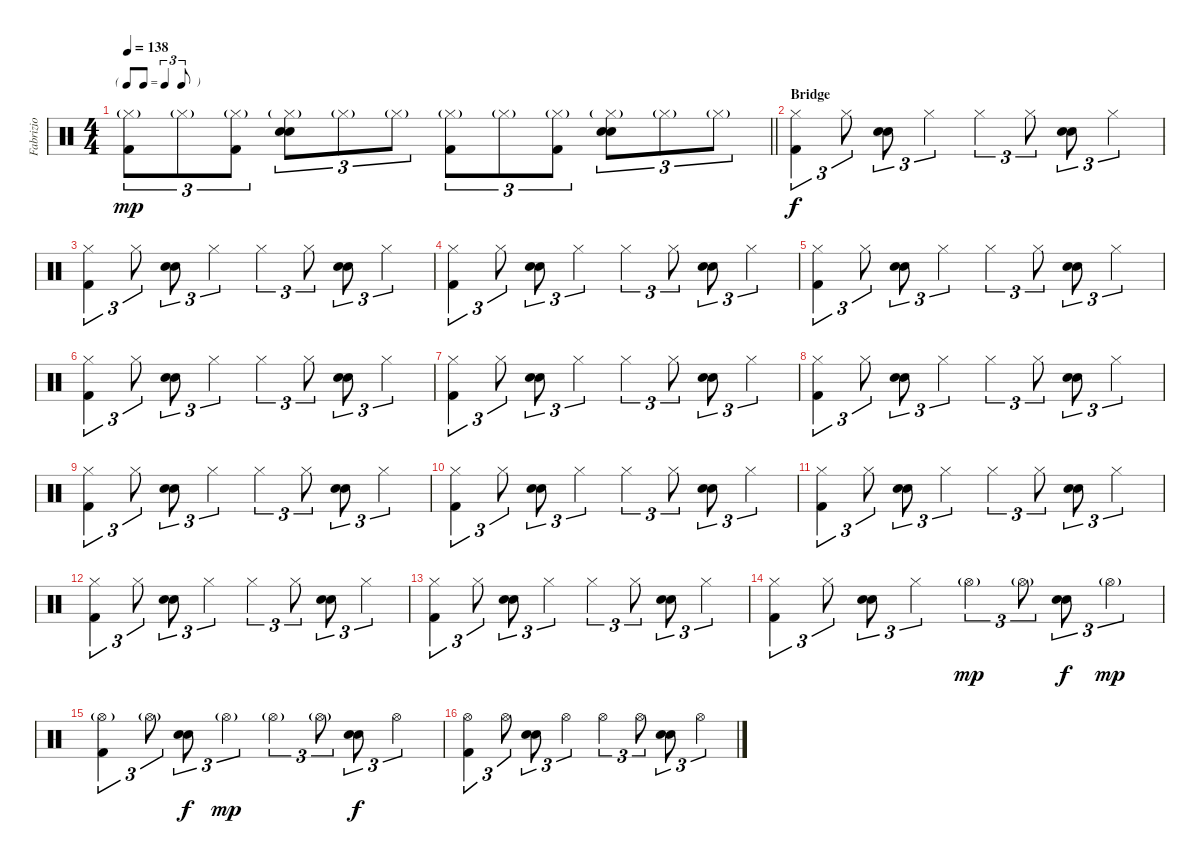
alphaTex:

\track ("Fabrizio" "Fabrizio") {instrument percussion}
\staff {score}
\articulation defaults
\ts (4 4)
\tf triplet8th
\tempo 138
\clef neutral
\barLineRight lightlight
\ks c
("Hi-Hat (closed)"{g} "Kick (hit) 2").8{tu (3 2) dy mp} "Hi-Hat (closed)"{g}.8{tu (3 2)} ("Hi-Hat (closed)"{g} "Kick (hit) 2").8{tu (3 2)} ("Hi-Hat (closed)"{g} "Electric Snare (hit)" "Snare (hit) 2").8{tu (3 2)} "Hi-Hat (closed)"{g}.8{tu (3 2)} "Hi-Hat (closed)"{g}.8{tu (3 2)} ("Hi-Hat (closed)"{g} "Kick (hit) 2").8{tu (3 2)} "Hi-Hat (closed)"{g}.8{tu (3 2)} ("Hi-Hat (closed)"{g} "Kick (hit) 2").8{tu (3 2)} ("Hi-Hat (closed)"{g} "Electric Snare (hit)" "Snare (hit) 2").8{tu (3 2)} "Hi-Hat (closed)"{g}.8{tu (3 2)} "Hi-Hat (closed)"{g}.8{tu (3 2)} |
\section ("" "Bridge")
("Hi-Hat (closed)" "Kick (hit) 2").4{tu (3 2) dy f} "Hi-Hat (closed)".8{tu (3 2)} ("Electric Snare (hit)" "Snare (hit) 2").8{tu (3 2)} "Hi-Hat (closed)".4{tu (3 2)} "Hi-Hat (closed)".4{tu (3 2)} "Hi-Hat (closed)".8{tu (3 2)} ("Electric Snare (hit)" "Snare (hit) 2").8{tu (3 2)} "Hi-Hat (closed)".4{tu (3 2)} |
("Hi-Hat (closed)" "Kick (hit) 2").4{tu (3 2)} "Hi-Hat (closed)".8{tu (3 2)} ("Electric Snare (hit)" "Snare (hit) 2").8{tu (3 2)} "Hi-Hat (closed)".4{tu (3 2)} "Hi-Hat (closed)".4{tu (3 2)} "Hi-Hat (closed)".8{tu (3 2)} ("Electric Snare (hit)" "Snare (hit) 2").8{tu (3 2)} "Hi-Hat (closed)".4{tu (3 2)} |
("Hi-Hat (closed)" "Kick (hit) 2").4{tu (3 2)} "Hi-Hat (closed)".8{tu (3 2)} ("Electric Snare (hit)" "Snare (hit) 2").8{tu (3 2)} "Hi-Hat (closed)".4{tu (3 2)} "Hi-Hat (closed)".4{tu (3 2)} "Hi-Hat (closed)".8{tu (3 2)} ("Electric Snare (hit)" "Snare (hit) 2").8{tu (3 2)} "Hi-Hat (closed)".4{tu (3 2)} |
("Hi-Hat (closed)" "Kick (hit) 2").4{tu (3 2)} "Hi-Hat (closed)".8{tu (3 2)} ("Electric Snare (hit)" "Snare (hit) 2").8{tu (3 2)} "Hi-Hat (closed)".4{tu (3 2)} "Hi-Hat (closed)".4{tu (3 2)} "Hi-Hat (closed)".8{tu (3 2)} ("Electric Snare (hit)" "Snare (hit) 2").8{tu (3 2)} "Hi-Hat (closed)".4{tu (3 2)} |
("Hi-Hat (closed)" "Kick (hit) 2").4{tu (3 2)} "Hi-Hat (closed)".8{tu (3 2)} ("Electric Snare (hit)" "Snare (hit) 2").8{tu (3 2)} "Hi-Hat (closed)".4{tu (3 2)} "Hi-Hat (closed)".4{tu (3 2)} "Hi-Hat (closed)".8{tu (3 2)} ("Electric Snare (hit)" "Snare (hit) 2").8{tu (3 2)} "Hi-Hat (closed)".4{tu (3 2)} |
("Hi-Hat (closed)" "Kick (hit) 2").4{tu (3 2)} "Hi-Hat (closed)".8{tu (3 2)} ("Electric Snare (hit)" "Snare (hit) 2").8{tu (3 2)} "Hi-Hat (closed)".4{tu (3 2)} "Hi-Hat (closed)".4{tu (3 2)} "Hi-Hat (closed)".8{tu (3 2)} ("Electric Snare (hit)" "Snare (hit) 2").8{tu (3 2)} "Hi-Hat (closed)".4{tu (3 2)} |
("Hi-Hat (closed)" "Kick (hit) 2").4{tu (3 2)} "Hi-Hat (closed)".8{tu (3 2)} ("Electric Snare (hit)" "Snare (hit) 2").8{tu (3 2)} "Hi-Hat (closed)".4{tu (3 2)} "Hi-Hat (closed)".4{tu (3 2)} "Hi-Hat (closed)".8{tu (3 2)} ("Electric Snare (hit)" "Snare (hit) 2").8{tu (3 2)} "Hi-Hat (closed)".4{tu (3 2)} |
("Hi-Hat (closed)" "Kick (hit) 2").4{tu (3 2)} "Hi-Hat (closed)".8{tu (3 2)} ("Electric Snare (hit)" "Snare (hit) 2").8{tu (3 2)} "Hi-Hat (closed)".4{tu (3 2)} "Hi-Hat (closed)".4{tu (3 2)} "Hi-Hat (closed)".8{tu (3 2)} ("Electric Snare (hit)" "Snare (hit) 2").8{tu (3 2)} "Hi-Hat (closed)".4{tu (3 2)} |
("Hi-Hat (closed)" "Kick (hit) 2").4{tu (3 2)} "Hi-Hat (closed)".8{tu (3 2)} ("Electric Snare (hit)" "Snare (hit) 2").8{tu (3 2)} "Hi-Hat (closed)".4{tu (3 2)} "Hi-Hat (closed)".4{tu (3 2)} "Hi-Hat (closed)".8{tu (3 2)} ("Electric Snare (hit)" "Snare (hit) 2").8{tu (3 2)} "Hi-Hat (closed)".4{tu (3 2)} |
("Hi-Hat (closed)" "Kick (hit) 2").4{tu (3 2)} "Hi-Hat (closed)".8{tu (3 2)} ("Electric Snare (hit)" "Snare (hit) 2").8{tu (3 2)} "Hi-Hat (closed)".4{tu (3 2)} "Hi-Hat (closed)".4{tu (3 2)} "Hi-Hat (closed)".8{tu (3 2)} ("Electric Snare (hit)" "Snare (hit) 2").8{tu (3 2)} "Hi-Hat (closed)".4{tu (3 2)} |
("Hi-Hat (closed)" "Kick (hit) 2").4{tu (3 2)} "Hi-Hat (closed)".8{tu (3 2)} ("Electric Snare (hit)" "Snare (hit) 2").8{tu (3 2)} "Hi-Hat (closed)".4{tu (3 2)} "Hi-Hat (closed)".4{tu (3 2)} "Hi-Hat (closed)".8{tu (3 2)} ("Electric Snare (hit)" "Snare (hit) 2").8{tu (3 2)} "Hi-Hat (closed)".4{tu (3 2)} |
("Hi-Hat (closed)" "Kick (hit) 2").4{tu (3 2)} "Hi-Hat (closed)".8{tu (3 2)} ("Electric Snare (hit)" "Snare (hit) 2").8{tu (3 2)} "Hi-Hat (closed)".4{tu (3 2)} "Hi-Hat (closed)".4{tu (3 2)} "Hi-Hat (closed)".8{tu (3 2)} ("Electric Snare (hit)" "Snare (hit) 2").8{tu (3 2)} "Hi-Hat (closed)".4{tu (3 2)} |
("Hi-Hat (closed)" "Kick (hit) 2").4{tu (3 2)} "Hi-Hat (closed)".8{tu (3 2)} ("Electric Snare (hit)" "Snare (hit) 2").8{tu (3 2)} "Hi-Hat (closed)".4{tu (3 2)} "Hi-Hat (open)"{g}.4{tu (3 2) dy mp} "Hi-Hat (open)"{g}.8{tu (3 2)} ("Electric Snare (hit)" "Snare (hit) 2").8{tu (3 2) dy f} "Hi-Hat (open)"{g}.4{tu (3 2) dy mp} |
("Hi-Hat (open)"{g} "Kick (hit) 2").4{tu (3 2)} "Hi-Hat (open)"{g}.8{tu (3 2)} ("Electric Snare (hit)" "Snare (hit) 2").8{tu (3 2) dy f} "Hi-Hat (open)"{g}.4{tu (3 2) dy mp} "Hi-Hat (open)"{g}.4{tu (3 2)} "Hi-Hat (open)"{g}.8{tu (3 2)} ("Electric Snare (hit)" "Snare (hit) 2").8{tu (3 2) dy f} "Hi-Hat (open)".4{tu (3 2)} |
("Hi-Hat (open)" "Kick (hit) 2").4{tu (3 2)} "Hi-Hat (open)".8{tu (3 2)} ("Electric Snare (hit)" "Snare (hit) 2").8{tu (3 2)} "Hi-Hat (open)".4{tu (3 2)} "Hi-Hat (open)".4{tu (3 2)} "Hi-Hat (open)".8{tu (3 2)} ("Electric Snare (hit)" "Snare (hit) 2").8{tu (3 2)} "Hi-Hat (open)".4{tu (3 2)}
